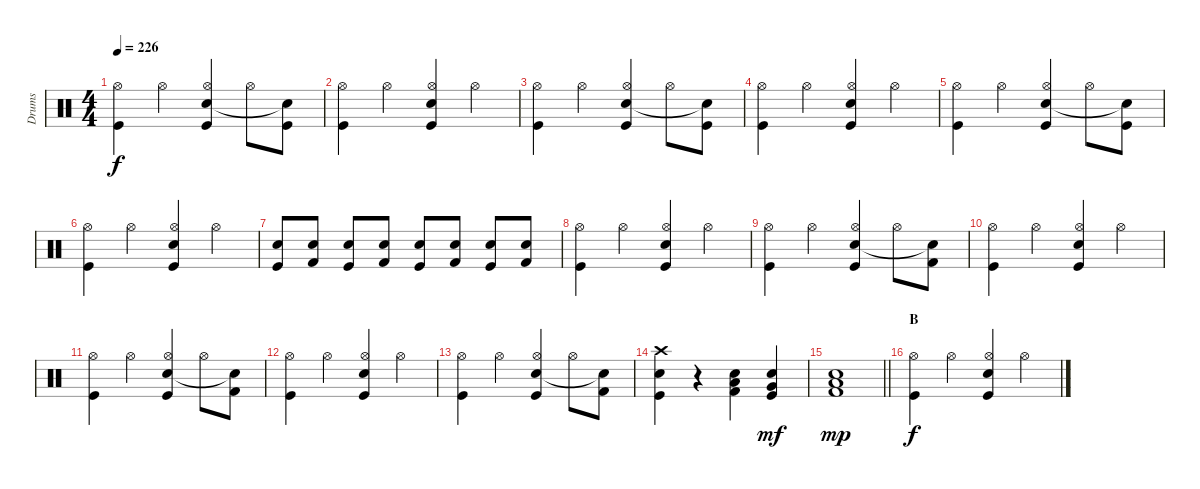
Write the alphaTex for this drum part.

\track ("Drums" "Drums") {instrument percussion}
\staff {score}
\articulation defaults
\ts (4 4)
\tempo 226
\clef neutral
\ks c
("Kick (hit)" "Hi-Hat (open)").4{dy f} "Hi-Hat (open)".4 ("Kick (hit)" "Snare (hit) 2" "Hi-Hat (open)").4 "Hi-Hat (open)".8 ("Kick (hit)" "Snare (hit)"{t}).8 |
("Kick (hit)" "Hi-Hat (open)").4 "Hi-Hat (open)".4 ("Kick (hit)" "Snare (hit) 2" "Hi-Hat (open)").4 "Hi-Hat (open)".4 |
("Kick (hit)" "Hi-Hat (open)").4 "Hi-Hat (open)".4 ("Kick (hit)" "Snare (hit) 2" "Hi-Hat (open)").4 "Hi-Hat (open)".8 ("Kick (hit)" "Snare (hit)"{t}).8 |
("Kick (hit)" "Hi-Hat (open)").4 "Hi-Hat (open)".4 ("Kick (hit)" "Snare (hit) 2" "Hi-Hat (open)").4 "Hi-Hat (open)".4 |
("Kick (hit)" "Hi-Hat (open)").4 "Hi-Hat (open)".4 ("Kick (hit)" "Snare (hit) 2" "Hi-Hat (open)").4 "Hi-Hat (open)".8 ("Kick (hit)" "Snare (hit)"{t}).8 |
("Kick (hit)" "Hi-Hat (open)").4 "Hi-Hat (open)".4 ("Kick (hit)" "Snare (hit) 2" "Hi-Hat (open)").4 "Hi-Hat (open)".4 |
("Kick (hit)" "Snare (hit) 2").8 ("Kick (hit) 2" "Snare (hit) 2").8 ("Kick (hit)" "Snare (hit) 2").8 ("Kick (hit) 2" "Snare (hit) 2").8 ("Kick (hit)" "Snare (hit) 2").8 ("Kick (hit) 2" "Snare (hit) 2").8 ("Kick (hit)" "Snare (hit) 2").8 ("Kick (hit) 2" "Snare (hit) 2").8 |
("Kick (hit)" "Hi-Hat (open)").4 "Hi-Hat (open)".4 ("Kick (hit)" "Snare (hit) 2" "Hi-Hat (open)").4 "Hi-Hat (open)".4 |
("Kick (hit)" "Hi-Hat (open)").4 "Hi-Hat (open)".4 ("Kick (hit)" "Snare (hit) 2" "Hi-Hat (open)").4 "Hi-Hat (open)".8 ("Kick (hit) 2" "Snare (hit)"{t}).8 |
("Kick (hit)" "Hi-Hat (open)").4 "Hi-Hat (open)".4 ("Kick (hit)" "Snare (hit) 2" "Hi-Hat (open)").4 "Hi-Hat (open)".4 |
("Kick (hit)" "Hi-Hat (open)").4 "Hi-Hat (open)".4 ("Kick (hit)" "Snare (hit) 2" "Hi-Hat (open)").4 "Hi-Hat (open)".8 ("Kick (hit) 2" "Snare (hit)"{t}).8 |
("Kick (hit)" "Hi-Hat (open)").4 "Hi-Hat (open)".4 ("Kick (hit)" "Snare (hit) 2" "Hi-Hat (open)").4 "Hi-Hat (open)".4 |
("Kick (hit)" "Hi-Hat (open)").4 "Hi-Hat (open)".4 ("Kick (hit)" "Snare (hit) 2" "Hi-Hat (open)").4 "Hi-Hat (open)".8 ("Kick (hit) 2" "Snare (hit)"{t}).8 |
("Kick (hit)" "Snare (hit) 2" "Crash high (hit)").4 r.4 ("Kick (hit) 2" "Snare (hit) 2" "Low Tom (hit)").4 ("Kick (hit)" "Electric Snare (hit)" "Very Low Tom (hit)").4{dy mf} |
\barLineRight lightlight
("Kick (hit) 2" "Electric Snare (hit)" "Low Floor Tom (hit)").1{dy mp} |
\section ("" "B")
("Kick (hit)" "Hi-Hat (open)").4{dy f} "Hi-Hat (open)".4 ("Kick (hit)" "Snare (hit) 2" "Hi-Hat (open)").4 "Hi-Hat (open)".4
